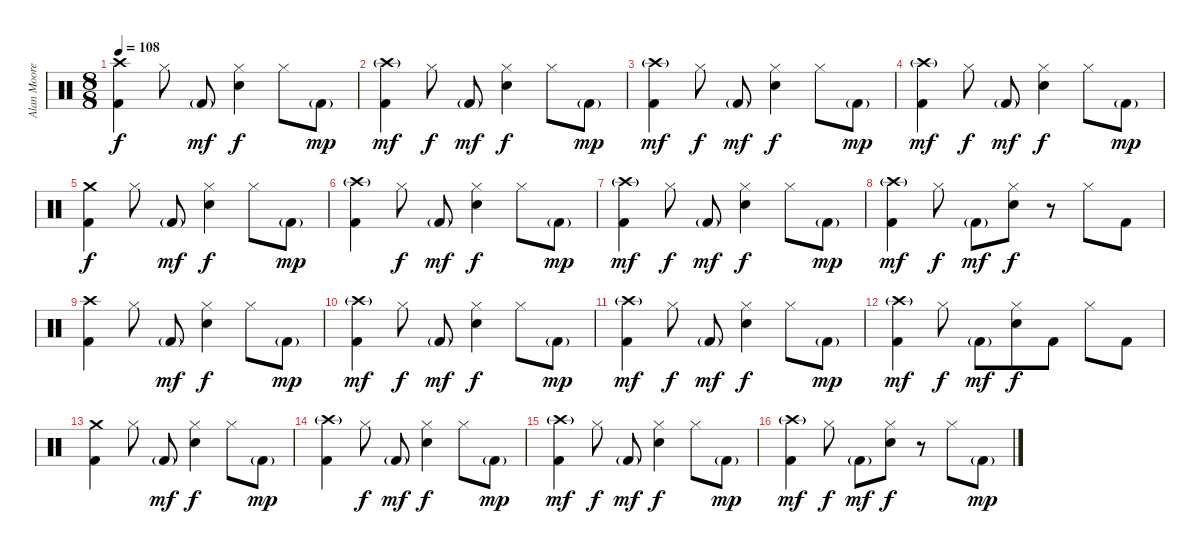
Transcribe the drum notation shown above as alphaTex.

\track ("Alan Moore" "Alan Moore") {instrument percussion}
\staff {score}
\articulation defaults
\ts (8 8)
\tempo 108
\clef neutral
\ks c
("Crash high (hit)" "Kick (hit) 2").4{dy f} "Hi-Hat (closed)".8 "Kick (hit) 2"{g}.8{dy mf} ("Hi-Hat (closed)" "Snare (hit) 2").4{dy f} "Hi-Hat (closed)".8 "Kick (hit) 2"{g}.8{dy mp} |
("Crash high (hit)"{g} "Kick (hit) 2").4{dy mf} "Hi-Hat (closed)".8{dy f} "Kick (hit) 2"{g}.8{dy mf} ("Hi-Hat (closed)" "Snare (hit) 2").4{dy f} "Hi-Hat (closed)".8 "Kick (hit) 2"{g}.8{dy mp} |
("Crash high (hit)"{g} "Kick (hit) 2").4{dy mf} "Hi-Hat (closed)".8{dy f} "Kick (hit) 2"{g}.8{dy mf} ("Hi-Hat (closed)" "Snare (hit) 2").4{dy f} "Hi-Hat (closed)".8 "Kick (hit) 2"{g}.8{dy mp} |
("Crash high (hit)"{g} "Kick (hit) 2").4{dy mf} "Hi-Hat (closed)".8{dy f} "Kick (hit) 2"{g}.8{dy mf} ("Hi-Hat (closed)" "Snare (hit) 2").4{dy f} "Hi-Hat (closed)".8 "Kick (hit) 2"{g}.8{dy mp} |
("Crash medium (hit)" "Kick (hit) 2").4{dy f} "Hi-Hat (closed)".8 "Kick (hit) 2"{g}.8{dy mf} ("Hi-Hat (closed)" "Snare (hit) 2").4{dy f} "Hi-Hat (closed)".8 "Kick (hit) 2"{g}.8{dy mp} |
("Crash high (hit)"{g} "Kick (hit) 2").4 "Hi-Hat (closed)".8{dy f} "Kick (hit) 2"{g}.8{dy mf} ("Hi-Hat (closed)" "Snare (hit) 2").4{dy f} "Hi-Hat (closed)".8 "Kick (hit) 2"{g}.8{dy mp} |
("Crash high (hit)"{g} "Kick (hit) 2").4{dy mf} "Hi-Hat (closed)".8{dy f} "Kick (hit) 2"{g}.8{dy mf} ("Hi-Hat (closed)" "Snare (hit) 2").4{dy f} "Hi-Hat (closed)".8 "Kick (hit) 2"{g}.8{dy mp} |
("Crash high (hit)"{g} "Kick (hit) 2").4{dy mf} "Hi-Hat (closed)".8{dy f} "Kick (hit) 2"{g}.8{dy mf} ("Hi-Hat (closed)" "Snare (hit) 2").8{dy f} r.8 "Hi-Hat (closed)".8 "Kick (hit) 2".8 |
("Crash high (hit)" "Kick (hit) 2").4 "Hi-Hat (closed)".8 "Kick (hit) 2"{g}.8{dy mf} ("Hi-Hat (closed)" "Snare (hit) 2").4{dy f} "Hi-Hat (closed)".8 "Kick (hit) 2"{g}.8{dy mp} |
("Crash high (hit)"{g} "Kick (hit) 2").4{dy mf} "Hi-Hat (closed)".8{dy f} "Kick (hit) 2"{g}.8{dy mf} ("Hi-Hat (closed)" "Snare (hit) 2").4{dy f} "Hi-Hat (closed)".8 "Kick (hit) 2"{g}.8{dy mp} |
("Crash high (hit)"{g} "Kick (hit) 2").4{dy mf} "Hi-Hat (closed)".8{dy f} "Kick (hit) 2"{g}.8{dy mf} ("Hi-Hat (closed)" "Snare (hit) 2").4{dy f} "Hi-Hat (closed)".8 "Kick (hit) 2"{g}.8{dy mp} |
("Crash high (hit)"{g} "Kick (hit) 2").4{dy mf} "Hi-Hat (closed)".8{dy f} "Kick (hit) 2"{g}.8{dy mf} ("Hi-Hat (closed)" "Snare (hit) 2").8{dy f} "Kick (hit) 2".8 "Hi-Hat (closed)".8 "Kick (hit) 2".8 |
("Crash medium (hit)" "Kick (hit) 2").4 "Hi-Hat (closed)".8 "Kick (hit) 2"{g}.8{dy mf} ("Hi-Hat (closed)" "Snare (hit) 2").4{dy f} "Hi-Hat (closed)".8 "Kick (hit) 2"{g}.8{dy mp} |
("Crash high (hit)"{g} "Kick (hit) 2").4 "Hi-Hat (closed)".8{dy f} "Kick (hit) 2"{g}.8{dy mf} ("Hi-Hat (closed)" "Snare (hit) 2").4{dy f} "Hi-Hat (closed)".8 "Kick (hit) 2"{g}.8{dy mp} |
("Crash high (hit)"{g} "Kick (hit) 2").4{dy mf} "Hi-Hat (closed)".8{dy f} "Kick (hit) 2"{g}.8{dy mf} ("Hi-Hat (closed)" "Snare (hit) 2").4{dy f} "Hi-Hat (closed)".8 "Kick (hit) 2"{g}.8{dy mp} |
("Crash high (hit)"{g} "Kick (hit) 2").4{dy mf} "Hi-Hat (closed)".8{dy f} "Kick (hit) 2"{g}.8{dy mf} ("Hi-Hat (closed)" "Snare (hit) 2").8{dy f} r.8 "Hi-Hat (closed)".8 "Kick (hit) 2"{g}.8{dy mp}
